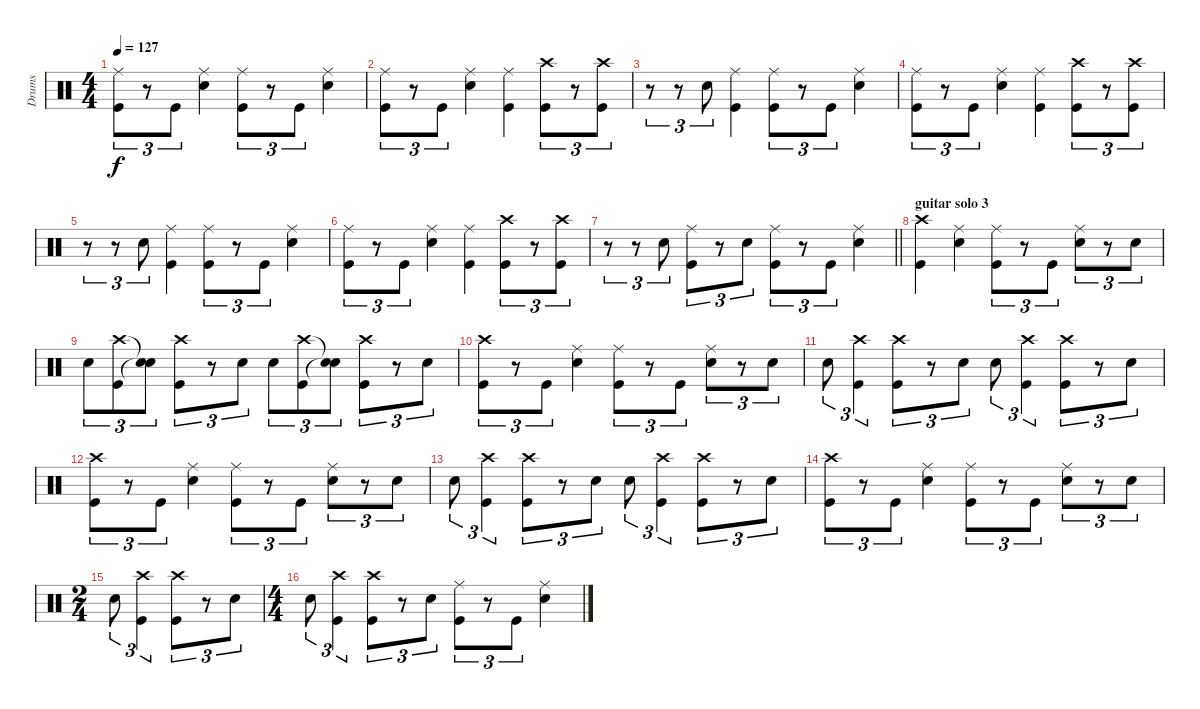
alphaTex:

\track ("Drums" "Drums") {instrument percussion}
\staff {score}
\articulation defaults
\ts (4 4)
\tempo 127
\clef neutral
\ks c
("Ride (middle)" "Kick (hit)").8{tu (3 2) dy f} r.8{tu (3 2)} "Kick (hit)".8{tu (3 2)} ("Ride (middle)" "Snare (hit) 2").4 ("Ride (middle)" "Kick (hit)").8{tu (3 2)} r.8{tu (3 2)} "Kick (hit)".8{tu (3 2)} ("Ride (middle)" "Snare (hit) 2").4 |
("Ride (middle)" "Kick (hit)").8{tu (3 2)} r.8{tu (3 2)} "Kick (hit)".8{tu (3 2)} ("Snare (hit) 2" "Ride (middle)").4 ("Ride (middle)" "Kick (hit)").4 ("Crash high (hit)" "Kick (hit)").8{tu (3 2)} r.8{tu (3 2)} ("Crash high (hit)" "Kick (hit)").8{tu (3 2)} |
r.8{tu (3 2)} r.8{tu (3 2)} "Snare (hit) 2".8{tu (3 2)} ("Ride (middle)" "Kick (hit)").4 ("Kick (hit)" "Ride (middle)").8{tu (3 2)} r.8{tu (3 2)} "Kick (hit)".8{tu (3 2)} ("Ride (middle)" "Snare (hit) 2").4 |
("Ride (middle)" "Kick (hit)").8{tu (3 2)} r.8{tu (3 2)} "Kick (hit)".8{tu (3 2)} ("Snare (hit) 2" "Ride (middle)").4 ("Ride (middle)" "Kick (hit)").4 ("Crash high (hit)" "Kick (hit)").8{tu (3 2)} r.8{tu (3 2)} ("Crash high (hit)" "Kick (hit)").8{tu (3 2)} |
r.8{tu (3 2)} r.8{tu (3 2)} "Snare (hit) 2".8{tu (3 2)} ("Ride (middle)" "Kick (hit)").4 ("Ride (middle)" "Kick (hit)").8{tu (3 2)} r.8{tu (3 2)} "Kick (hit)".8{tu (3 2)} ("Ride (middle)" "Snare (hit) 2").4 |
("Kick (hit)" "Ride (middle)").8{tu (3 2)} r.8{tu (3 2)} "Kick (hit)".8{tu (3 2)} ("Snare (hit) 2" "Ride (middle)").4 ("Ride (middle)" "Kick (hit)").4 ("Crash high (hit)" "Kick (hit)").8{tu (3 2)} r.8{tu (3 2)} ("Kick (hit)" "Crash high (hit)").8{tu (3 2)} |
\barLineRight lightlight
r.8{tu (3 2)} r.8{tu (3 2)} "Snare (hit) 2".8{tu (3 2)} ("Ride (middle)" "Kick (hit)").8{tu (3 2)} r.8{tu (3 2)} "Snare (hit) 2".8{tu (3 2)} ("Ride (middle)" "Kick (hit)").8{tu (3 2)} r.8{tu (3 2)} "Kick (hit)".8{tu (3 2)} ("Snare (hit) 2" "Ride (middle)").4 |
\section ("" "guitar solo 3")
("Kick (hit)" "Crash high (hit)").4 ("Ride (middle)" "Snare (hit) 2").4 ("Ride (middle)" "Kick (hit)").8{tu (3 2)} r.8{tu (3 2)} "Kick (hit)".8{tu (3 2)} ("Ride (middle)" "Snare (hit) 2").8{tu (3 2)} r.8{tu (3 2)} "Snare (hit) 2".8{tu (3 2)} |
"Snare (hit) 2".8{tu (3 2)} ("Kick (hit)" "Crash high (hit)").8{tu (3 2)} ("Snare (hit)"{t} "Snare (hit)"{t}).8{tu (3 2)} ("Crash high (hit)" "Kick (hit)").8{tu (3 2)} r.8{tu (3 2)} "Snare (hit) 2".8{tu (3 2)} "Snare (hit) 2".8{tu (3 2)} ("Crash high (hit)" "Kick (hit)").8{tu (3 2)} ("Snare (hit)"{t} "Snare (hit)"{t}).8{tu (3 2)} ("Crash high (hit)" "Kick (hit)").8{tu (3 2)} r.8{tu (3 2)} "Snare (hit) 2".8{tu (3 2)} |
("Crash high (hit)" "Kick (hit)").8{tu (3 2)} r.8{tu (3 2)} "Kick (hit)".8{tu (3 2)} ("Ride (middle)" "Snare (hit) 2").4 ("Kick (hit)" "Ride (middle)").8{tu (3 2)} r.8{tu (3 2)} "Kick (hit)".8{tu (3 2)} ("Snare (hit) 2" "Ride (middle)").8{tu (3 2)} r.8{tu (3 2)} "Snare (hit) 2".8{tu (3 2)} |
"Snare (hit) 2".8{tu (3 2)} ("Kick (hit)" "Crash high (hit)").4{tu (3 2)} ("Crash high (hit)" "Kick (hit)").8{tu (3 2)} r.8{tu (3 2)} "Snare (hit) 2".8{tu (3 2)} "Snare (hit) 2".8{tu (3 2)} ("Crash high (hit)" "Kick (hit)").4{tu (3 2)} ("Crash high (hit)" "Kick (hit)").8{tu (3 2)} r.8{tu (3 2)} "Snare (hit) 2".8{tu (3 2)} |
("Crash high (hit)" "Kick (hit)").8{tu (3 2)} r.8{tu (3 2)} "Kick (hit)".8{tu (3 2)} ("Ride (middle)" "Snare (hit) 2").4 ("Kick (hit)" "Ride (middle)").8{tu (3 2)} r.8{tu (3 2)} "Kick (hit)".8{tu (3 2)} ("Snare (hit) 2" "Ride (middle)").8{tu (3 2)} r.8{tu (3 2)} "Snare (hit) 2".8{tu (3 2)} |
"Snare (hit) 2".8{tu (3 2)} ("Kick (hit)" "Crash high (hit)").4{tu (3 2)} ("Crash high (hit)" "Kick (hit)").8{tu (3 2)} r.8{tu (3 2)} "Snare (hit) 2".8{tu (3 2)} "Snare (hit) 2".8{tu (3 2)} ("Crash high (hit)" "Kick (hit)").4{tu (3 2)} ("Crash high (hit)" "Kick (hit)").8{tu (3 2)} r.8{tu (3 2)} "Snare (hit) 2".8{tu (3 2)} |
("Crash high (hit)" "Kick (hit)").8{tu (3 2)} r.8{tu (3 2)} "Kick (hit)".8{tu (3 2)} ("Ride (middle)" "Snare (hit) 2").4 ("Kick (hit)" "Ride (middle)").8{tu (3 2)} r.8{tu (3 2)} "Kick (hit)".8{tu (3 2)} ("Snare (hit) 2" "Ride (middle)").8{tu (3 2)} r.8{tu (3 2)} "Snare (hit) 2".8{tu (3 2)} |
\ts (2 4)
"Snare (hit) 2".8{tu (3 2)} ("Kick (hit)" "Crash high (hit)").4{tu (3 2)} ("Crash high (hit)" "Kick (hit)").8{tu (3 2)} r.8{tu (3 2)} "Snare (hit) 2".8{tu (3 2)} |
\ts (4 4)
"Snare (hit) 2".8{tu (3 2)} ("Crash high (hit)" "Kick (hit)").4{tu (3 2)} ("Crash high (hit)" "Kick (hit)").8{tu (3 2)} r.8{tu (3 2)} "Snare (hit) 2".8{tu (3 2)} ("Ride (middle)" "Kick (hit)").8{tu (3 2)} r.8{tu (3 2)} "Kick (hit)".8{tu (3 2)} ("Snare (hit) 2" "Ride (middle)").4
